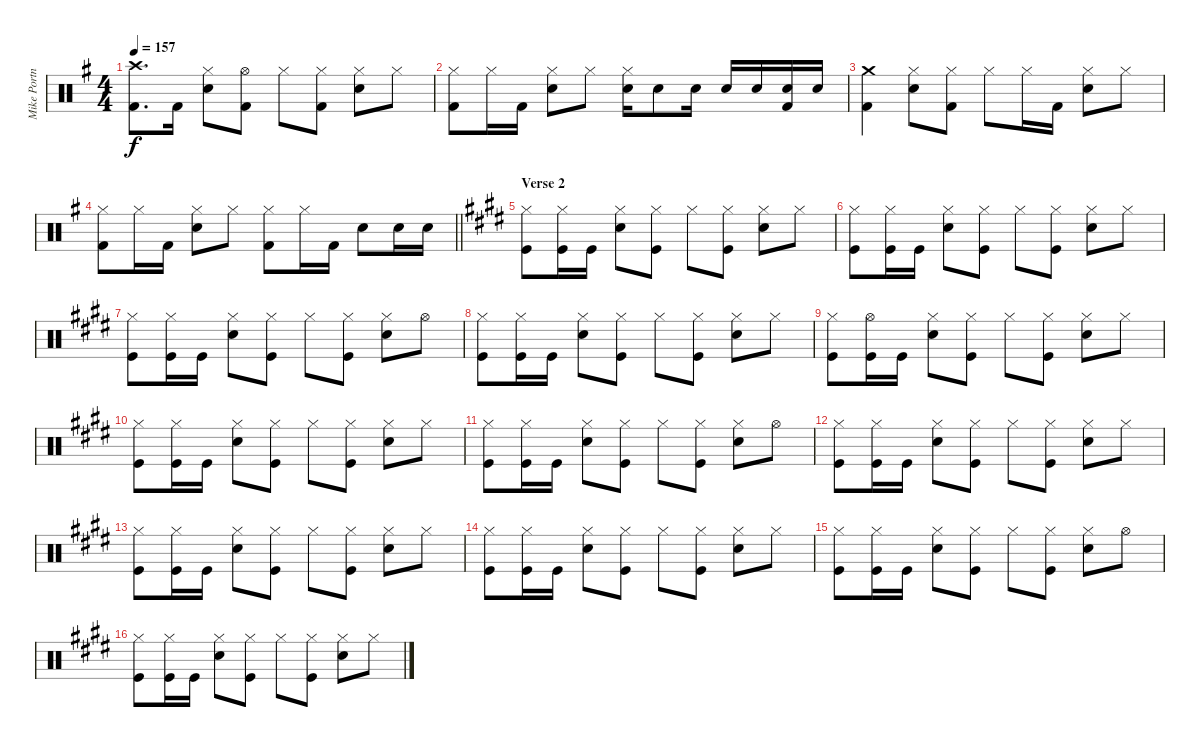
\track ("Mike Portnoy" "Mike Portn") {instrument percussion}
\staff {score}
\articulation defaults
\ts (4 4)
\tempo 157
\clef neutral
\ks g
("Kick (hit) 2" "Crash high (hit)").8{d dy f} "Kick (hit) 2".16 ("Snare (hit) 2" "Hi-Hat (closed)").8 ("Kick (hit) 2" "Hi-Hat (open)").8 "Hi-Hat (closed)".8 ("Kick (hit) 2" "Hi-Hat (closed)").8 ("Snare (hit) 2" "Hi-Hat (closed)").8 "Hi-Hat (closed)".8 |
("Kick (hit) 2" "Hi-Hat (closed)").8 "Hi-Hat (closed)".16 "Kick (hit) 2".16 ("Snare (hit) 2" "Hi-Hat (closed)").8 "Hi-Hat (closed)".8 ("Snare (hit) 2" "Hi-Hat (closed)").16 "Snare (hit) 2".8 "Snare (hit) 2".16 "Snare (hit) 2".16 "Snare (hit) 2".16 ("Kick (hit) 2" "Snare (hit) 2").16 "Snare (hit) 2".16 |
("Kick (hit) 2" "Crash medium (hit)").4 ("Snare (hit) 2" "Hi-Hat (closed)").8 ("Kick (hit) 2" "Hi-Hat (closed)").8 "Hi-Hat (closed)".8 "Hi-Hat (closed)".16 "Kick (hit) 2".16 ("Snare (hit) 2" "Hi-Hat (closed)").8 "Hi-Hat (closed)".8 |
\barLineRight lightlight
("Kick (hit) 2" "Hi-Hat (closed)").8 "Hi-Hat (closed)".16 "Kick (hit) 2".16 ("Snare (hit) 2" "Hi-Hat (closed)").8 "Hi-Hat (closed)".8 ("Kick (hit) 2" "Hi-Hat (closed)").8 "Hi-Hat (closed)".16 "Kick (hit) 2".16 "Snare (hit) 2".8 "Snare (hit) 2".16 "Snare (hit) 2".16 |
\section ("" "Verse 2")
\ks e
("Kick (hit)" "Hi-Hat (closed)").8 ("Kick (hit)" "Hi-Hat (closed)").16 "Kick (hit)".16 ("Snare (hit) 2" "Hi-Hat (closed)").8 ("Kick (hit)" "Hi-Hat (closed)").8 "Hi-Hat (closed)".8 ("Kick (hit)" "Hi-Hat (closed)").8 ("Snare (hit) 2" "Hi-Hat (closed)").8 "Hi-Hat (closed)".8 |
\ks c#minor
("Kick (hit)" "Hi-Hat (closed)").8 ("Kick (hit)" "Hi-Hat (closed)").16 "Kick (hit)".16 ("Snare (hit) 2" "Hi-Hat (closed)").8 ("Kick (hit)" "Hi-Hat (closed)").8 "Hi-Hat (closed)".8 ("Kick (hit)" "Hi-Hat (closed)").8 ("Snare (hit) 2" "Hi-Hat (closed)").8 "Hi-Hat (closed)".8 |
("Kick (hit)" "Hi-Hat (closed)").8 ("Kick (hit)" "Hi-Hat (closed)").16 "Kick (hit)".16 ("Snare (hit) 2" "Hi-Hat (closed)").8 ("Kick (hit)" "Hi-Hat (closed)").8 "Hi-Hat (closed)".8 ("Kick (hit)" "Hi-Hat (closed)").8 ("Snare (hit) 2" "Hi-Hat (closed)").8 "Hi-Hat (open)".8 |
("Kick (hit)" "Hi-Hat (closed)").8 ("Kick (hit)" "Hi-Hat (closed)").16 "Kick (hit)".16 ("Snare (hit) 2" "Hi-Hat (closed)").8 ("Kick (hit)" "Hi-Hat (closed)").8 "Hi-Hat (closed)".8 ("Kick (hit)" "Hi-Hat (closed)").8 ("Snare (hit) 2" "Hi-Hat (closed)").8 "Hi-Hat (closed)".8 |
\ks e
("Kick (hit)" "Hi-Hat (closed)").8 ("Kick (hit)" "Hi-Hat (open)").16 "Kick (hit)".16 ("Snare (hit) 2" "Hi-Hat (closed)").8 ("Kick (hit)" "Hi-Hat (closed)").8 "Hi-Hat (closed)".8 ("Kick (hit)" "Hi-Hat (closed)").8 ("Snare (hit) 2" "Hi-Hat (closed)").8 "Hi-Hat (closed)".8 |
\ks c#minor
("Kick (hit)" "Hi-Hat (closed)").8 ("Kick (hit)" "Hi-Hat (closed)").16 "Kick (hit)".16 ("Snare (hit) 2" "Hi-Hat (closed)").8 ("Kick (hit)" "Hi-Hat (closed)").8 "Hi-Hat (closed)".8 ("Kick (hit)" "Hi-Hat (closed)").8 ("Snare (hit) 2" "Hi-Hat (closed)").8 "Hi-Hat (closed)".8 |
("Kick (hit)" "Hi-Hat (closed)").8 ("Kick (hit)" "Hi-Hat (closed)").16 "Kick (hit)".16 ("Snare (hit) 2" "Hi-Hat (closed)").8 ("Kick (hit)" "Hi-Hat (closed)").8 "Hi-Hat (closed)".8 ("Kick (hit)" "Hi-Hat (closed)").8 ("Snare (hit) 2" "Hi-Hat (closed)").8 "Hi-Hat (open)".8 |
("Kick (hit)" "Hi-Hat (closed)").8 ("Kick (hit)" "Hi-Hat (closed)").16 "Kick (hit)".16 ("Snare (hit) 2" "Hi-Hat (closed)").8 ("Kick (hit)" "Hi-Hat (closed)").8 "Hi-Hat (closed)".8 ("Kick (hit)" "Hi-Hat (closed)").8 ("Snare (hit) 2" "Hi-Hat (closed)").8 "Hi-Hat (closed)".8 |
\ks e
("Kick (hit)" "Hi-Hat (closed)").8 ("Kick (hit)" "Hi-Hat (closed)").16 "Kick (hit)".16 ("Snare (hit) 2" "Hi-Hat (closed)").8 ("Kick (hit)" "Hi-Hat (closed)").8 "Hi-Hat (closed)".8 ("Kick (hit)" "Hi-Hat (closed)").8 ("Snare (hit) 2" "Hi-Hat (closed)").8 "Hi-Hat (closed)".8 |
\ks c#minor
("Kick (hit)" "Hi-Hat (closed)").8 ("Kick (hit)" "Hi-Hat (closed)").16 "Kick (hit)".16 ("Snare (hit) 2" "Hi-Hat (closed)").8 ("Kick (hit)" "Hi-Hat (closed)").8 "Hi-Hat (closed)".8 ("Kick (hit)" "Hi-Hat (closed)").8 ("Snare (hit) 2" "Hi-Hat (closed)").8 "Hi-Hat (closed)".8 |
("Kick (hit)" "Hi-Hat (closed)").8 ("Kick (hit)" "Hi-Hat (closed)").16 "Kick (hit)".16 ("Snare (hit) 2" "Hi-Hat (closed)").8 ("Kick (hit)" "Hi-Hat (closed)").8 "Hi-Hat (closed)".8 ("Kick (hit)" "Hi-Hat (closed)").8 ("Snare (hit) 2" "Hi-Hat (closed)").8 "Hi-Hat (open)".8 |
("Kick (hit)" "Hi-Hat (closed)").8 ("Kick (hit)" "Hi-Hat (closed)").16 "Kick (hit)".16 ("Snare (hit) 2" "Hi-Hat (closed)").8 ("Kick (hit)" "Hi-Hat (closed)").8 "Hi-Hat (closed)".8 ("Kick (hit)" "Hi-Hat (closed)").8 ("Snare (hit) 2" "Hi-Hat (closed)").8 "Hi-Hat (closed)".8
